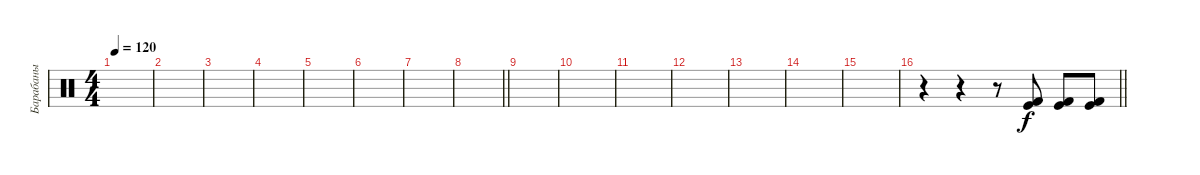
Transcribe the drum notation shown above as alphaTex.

\track ("Барабаны" "Барабаны") {instrument percussion}
\staff {score}
\articulation defaults
\ts (4 4)
\tempo 120
\clef neutral
\ks c
|
|
|
|
|
|
|
\barLineRight lightlight
|
|
|
|
|
|
|
|
\barLineRight lightlight
r.4 r.4 r.8 ("Kick (hit)" "Kick (hit) 2").8 ("Kick (hit)" "Kick (hit) 2").8 ("Kick (hit)" "Kick (hit) 2").8
